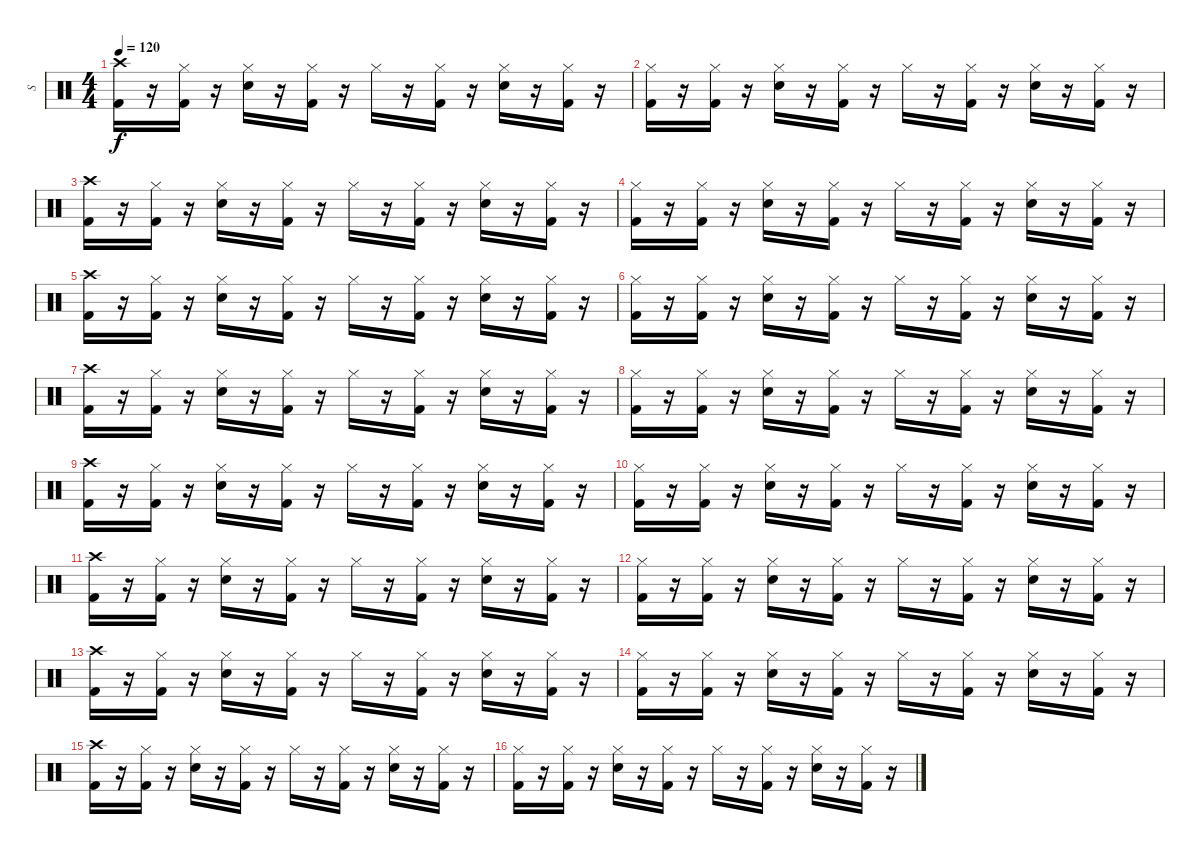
\track ("  S" "  S") {instrument percussion}
\staff {score}
\articulation defaults
\ts (4 4)
\tempo 120
\clef neutral
\ks c
("Crash high (hit)" "Kick (hit) 2").16{dy f} r.16 ("Hi-Hat (closed)" "Kick (hit) 2").16 r.16 ("Hi-Hat (closed)" "Snare (hit) 2").16 r.16 ("Hi-Hat (closed)" "Kick (hit) 2").16 r.16 "Hi-Hat (closed)".16 r.16 ("Hi-Hat (closed)" "Kick (hit) 2").16 r.16 ("Hi-Hat (closed)" "Snare (hit) 2").16 r.16 ("Hi-Hat (closed)" "Kick (hit) 2").16 r.16 |
("Hi-Hat (closed)" "Kick (hit) 2").16 r.16 ("Hi-Hat (closed)" "Kick (hit) 2").16 r.16 ("Hi-Hat (closed)" "Snare (hit) 2").16 r.16 ("Hi-Hat (closed)" "Kick (hit) 2").16 r.16 "Hi-Hat (closed)".16 r.16 ("Hi-Hat (closed)" "Kick (hit) 2").16 r.16 ("Hi-Hat (closed)" "Snare (hit) 2").16 r.16 ("Hi-Hat (closed)" "Kick (hit) 2").16 r.16 |
("Crash high (hit)" "Kick (hit) 2").16 r.16 ("Hi-Hat (closed)" "Kick (hit) 2").16 r.16 ("Hi-Hat (closed)" "Snare (hit) 2").16 r.16 ("Hi-Hat (closed)" "Kick (hit) 2").16 r.16 "Hi-Hat (closed)".16 r.16 ("Hi-Hat (closed)" "Kick (hit) 2").16 r.16 ("Hi-Hat (closed)" "Snare (hit) 2").16 r.16 ("Hi-Hat (closed)" "Kick (hit) 2").16 r.16 |
("Hi-Hat (closed)" "Kick (hit) 2").16 r.16 ("Hi-Hat (closed)" "Kick (hit) 2").16 r.16 ("Hi-Hat (closed)" "Snare (hit) 2").16 r.16 ("Hi-Hat (closed)" "Kick (hit) 2").16 r.16 "Hi-Hat (closed)".16 r.16 ("Hi-Hat (closed)" "Kick (hit) 2").16 r.16 ("Hi-Hat (closed)" "Snare (hit) 2").16 r.16 ("Hi-Hat (closed)" "Kick (hit) 2").16 r.16 |
("Crash high (hit)" "Kick (hit) 2").16 r.16 ("Hi-Hat (closed)" "Kick (hit) 2").16 r.16 ("Hi-Hat (closed)" "Snare (hit) 2").16 r.16 ("Hi-Hat (closed)" "Kick (hit) 2").16 r.16 "Hi-Hat (closed)".16 r.16 ("Hi-Hat (closed)" "Kick (hit) 2").16 r.16 ("Hi-Hat (closed)" "Snare (hit) 2").16 r.16 ("Hi-Hat (closed)" "Kick (hit) 2").16 r.16 |
("Hi-Hat (closed)" "Kick (hit) 2").16 r.16 ("Hi-Hat (closed)" "Kick (hit) 2").16 r.16 ("Hi-Hat (closed)" "Snare (hit) 2").16 r.16 ("Hi-Hat (closed)" "Kick (hit) 2").16 r.16 "Hi-Hat (closed)".16 r.16 ("Hi-Hat (closed)" "Kick (hit) 2").16 r.16 ("Hi-Hat (closed)" "Snare (hit) 2").16 r.16 ("Hi-Hat (closed)" "Kick (hit) 2").16 r.16 |
("Crash high (hit)" "Kick (hit) 2").16 r.16 ("Hi-Hat (closed)" "Kick (hit) 2").16 r.16 ("Hi-Hat (closed)" "Snare (hit) 2").16 r.16 ("Hi-Hat (closed)" "Kick (hit) 2").16 r.16 "Hi-Hat (closed)".16 r.16 ("Hi-Hat (closed)" "Kick (hit) 2").16 r.16 ("Hi-Hat (closed)" "Snare (hit) 2").16 r.16 ("Hi-Hat (closed)" "Kick (hit) 2").16 r.16 |
("Hi-Hat (closed)" "Kick (hit) 2").16 r.16 ("Hi-Hat (closed)" "Kick (hit) 2").16 r.16 ("Hi-Hat (closed)" "Snare (hit) 2").16 r.16 ("Hi-Hat (closed)" "Kick (hit) 2").16 r.16 "Hi-Hat (closed)".16 r.16 ("Hi-Hat (closed)" "Kick (hit) 2").16 r.16 ("Hi-Hat (closed)" "Snare (hit) 2").16 r.16 ("Hi-Hat (closed)" "Kick (hit) 2").16 r.16 |
("Crash high (hit)" "Kick (hit) 2").16 r.16 ("Hi-Hat (closed)" "Kick (hit) 2").16 r.16 ("Hi-Hat (closed)" "Snare (hit) 2").16 r.16 ("Hi-Hat (closed)" "Kick (hit) 2").16 r.16 "Hi-Hat (closed)".16 r.16 ("Hi-Hat (closed)" "Kick (hit) 2").16 r.16 ("Hi-Hat (closed)" "Snare (hit) 2").16 r.16 ("Hi-Hat (closed)" "Kick (hit) 2").16 r.16 |
("Hi-Hat (closed)" "Kick (hit) 2").16 r.16 ("Hi-Hat (closed)" "Kick (hit) 2").16 r.16 ("Hi-Hat (closed)" "Snare (hit) 2").16 r.16 ("Hi-Hat (closed)" "Kick (hit) 2").16 r.16 "Hi-Hat (closed)".16 r.16 ("Hi-Hat (closed)" "Kick (hit) 2").16 r.16 ("Hi-Hat (closed)" "Snare (hit) 2").16 r.16 ("Hi-Hat (closed)" "Kick (hit) 2").16 r.16 |
("Crash high (hit)" "Kick (hit) 2").16 r.16 ("Hi-Hat (closed)" "Kick (hit) 2").16 r.16 ("Hi-Hat (closed)" "Snare (hit) 2").16 r.16 ("Hi-Hat (closed)" "Kick (hit) 2").16 r.16 "Hi-Hat (closed)".16 r.16 ("Hi-Hat (closed)" "Kick (hit) 2").16 r.16 ("Hi-Hat (closed)" "Snare (hit) 2").16 r.16 ("Hi-Hat (closed)" "Kick (hit) 2").16 r.16 |
("Hi-Hat (closed)" "Kick (hit) 2").16 r.16 ("Hi-Hat (closed)" "Kick (hit) 2").16 r.16 ("Hi-Hat (closed)" "Snare (hit) 2").16 r.16 ("Hi-Hat (closed)" "Kick (hit) 2").16 r.16 "Hi-Hat (closed)".16 r.16 ("Hi-Hat (closed)" "Kick (hit) 2").16 r.16 ("Hi-Hat (closed)" "Snare (hit) 2").16 r.16 ("Hi-Hat (closed)" "Kick (hit) 2").16 r.16 |
("Crash high (hit)" "Kick (hit) 2").16 r.16 ("Hi-Hat (closed)" "Kick (hit) 2").16 r.16 ("Hi-Hat (closed)" "Snare (hit) 2").16 r.16 ("Hi-Hat (closed)" "Kick (hit) 2").16 r.16 "Hi-Hat (closed)".16 r.16 ("Hi-Hat (closed)" "Kick (hit) 2").16 r.16 ("Hi-Hat (closed)" "Snare (hit) 2").16 r.16 ("Hi-Hat (closed)" "Kick (hit) 2").16 r.16 |
("Hi-Hat (closed)" "Kick (hit) 2").16 r.16 ("Hi-Hat (closed)" "Kick (hit) 2").16 r.16 ("Hi-Hat (closed)" "Snare (hit) 2").16 r.16 ("Hi-Hat (closed)" "Kick (hit) 2").16 r.16 "Hi-Hat (closed)".16 r.16 ("Hi-Hat (closed)" "Kick (hit) 2").16 r.16 ("Hi-Hat (closed)" "Snare (hit) 2").16 r.16 ("Hi-Hat (closed)" "Kick (hit) 2").16 r.16 |
("Crash high (hit)" "Kick (hit) 2").16 r.16 ("Hi-Hat (closed)" "Kick (hit) 2").16 r.16 ("Hi-Hat (closed)" "Snare (hit) 2").16 r.16 ("Hi-Hat (closed)" "Kick (hit) 2").16 r.16 "Hi-Hat (closed)".16 r.16 ("Hi-Hat (closed)" "Kick (hit) 2").16 r.16 ("Hi-Hat (closed)" "Snare (hit) 2").16 r.16 ("Hi-Hat (closed)" "Kick (hit) 2").16 r.16 |
("Hi-Hat (closed)" "Kick (hit) 2").16 r.16 ("Hi-Hat (closed)" "Kick (hit) 2").16 r.16 ("Hi-Hat (closed)" "Snare (hit) 2").16 r.16 ("Hi-Hat (closed)" "Kick (hit) 2").16 r.16 "Hi-Hat (closed)".16 r.16 ("Hi-Hat (closed)" "Kick (hit) 2").16 r.16 ("Hi-Hat (closed)" "Snare (hit) 2").16 r.16 ("Hi-Hat (closed)" "Kick (hit) 2").16 r.16
